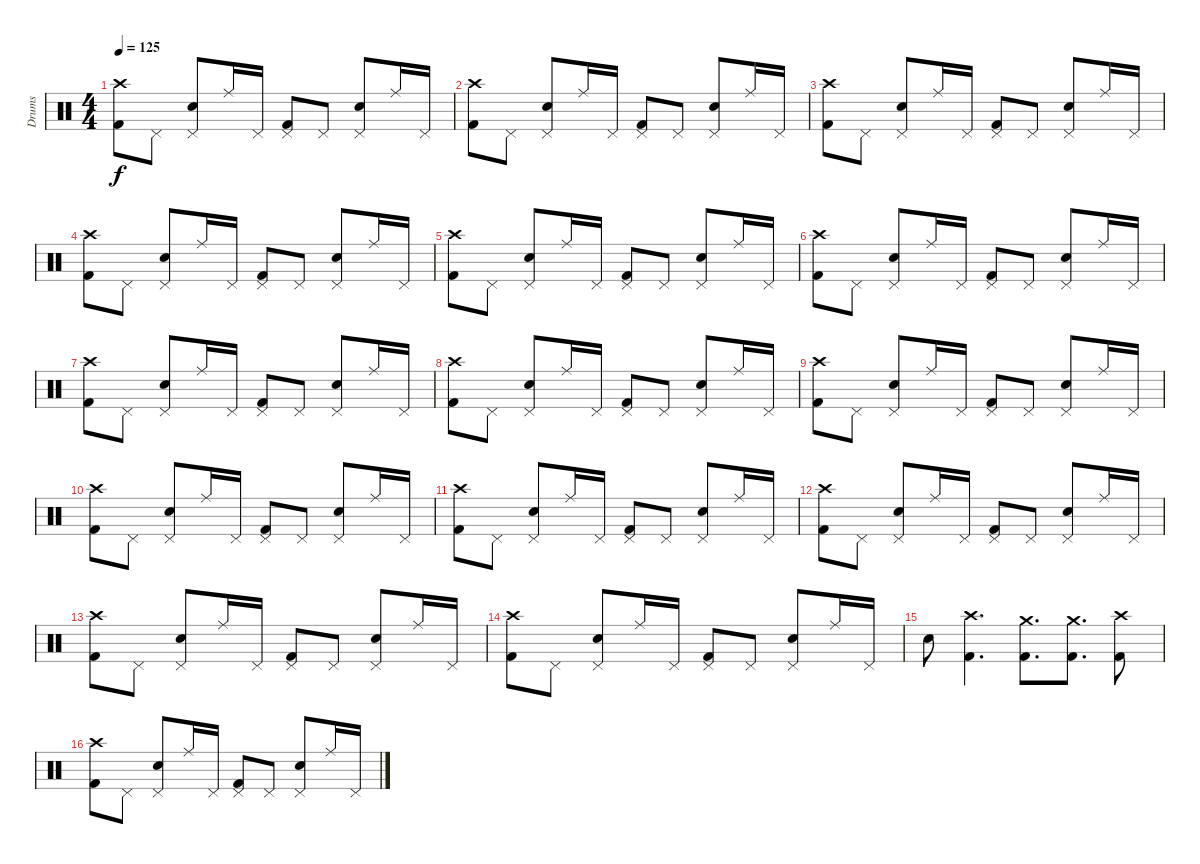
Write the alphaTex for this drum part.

\track ("Drums" "Drums") {instrument percussion}
\staff {score}
\articulation defaults
\ts (4 4)
\tempo 125
\clef neutral
\ks c
("Crash high (hit)" "Kick (hit) 2").8{dy f} "Pedal Hi-Hat (hit)".8 ("Pedal Hi-Hat (hit)" "Snare (hit) 2").8 "Ride (middle)".16 "Pedal Hi-Hat (hit)".16 ("Pedal Hi-Hat (hit)" "Kick (hit) 2").8 "Pedal Hi-Hat (hit)".8 ("Pedal Hi-Hat (hit)" "Snare (hit) 2").8 "Ride (middle)".16 "Pedal Hi-Hat (hit)".16 |
("Crash high (hit)" "Kick (hit) 2").8 "Pedal Hi-Hat (hit)".8 ("Pedal Hi-Hat (hit)" "Snare (hit) 2").8 "Ride (middle)".16 "Pedal Hi-Hat (hit)".16 ("Pedal Hi-Hat (hit)" "Kick (hit) 2").8 "Pedal Hi-Hat (hit)".8 ("Pedal Hi-Hat (hit)" "Snare (hit) 2").8 "Ride (middle)".16 "Pedal Hi-Hat (hit)".16 |
("Crash high (hit)" "Kick (hit) 2").8 "Pedal Hi-Hat (hit)".8 ("Pedal Hi-Hat (hit)" "Snare (hit) 2").8 "Ride (middle)".16 "Pedal Hi-Hat (hit)".16 ("Pedal Hi-Hat (hit)" "Kick (hit) 2").8 "Pedal Hi-Hat (hit)".8 ("Pedal Hi-Hat (hit)" "Snare (hit) 2").8 "Ride (middle)".16 "Pedal Hi-Hat (hit)".16 |
("Crash high (hit)" "Kick (hit) 2").8 "Pedal Hi-Hat (hit)".8 ("Pedal Hi-Hat (hit)" "Snare (hit) 2").8 "Ride (middle)".16 "Pedal Hi-Hat (hit)".16 ("Pedal Hi-Hat (hit)" "Kick (hit) 2").8 "Pedal Hi-Hat (hit)".8 ("Pedal Hi-Hat (hit)" "Snare (hit) 2").8 "Ride (middle)".16 "Pedal Hi-Hat (hit)".16 |
("Crash high (hit)" "Kick (hit) 2").8 "Pedal Hi-Hat (hit)".8 ("Pedal Hi-Hat (hit)" "Snare (hit) 2").8 "Ride (middle)".16 "Pedal Hi-Hat (hit)".16 ("Pedal Hi-Hat (hit)" "Kick (hit) 2").8 "Pedal Hi-Hat (hit)".8 ("Pedal Hi-Hat (hit)" "Snare (hit) 2").8 "Ride (middle)".16 "Pedal Hi-Hat (hit)".16 |
("Crash high (hit)" "Kick (hit) 2").8 "Pedal Hi-Hat (hit)".8 ("Pedal Hi-Hat (hit)" "Snare (hit) 2").8 "Ride (middle)".16 "Pedal Hi-Hat (hit)".16 ("Pedal Hi-Hat (hit)" "Kick (hit) 2").8 "Pedal Hi-Hat (hit)".8 ("Pedal Hi-Hat (hit)" "Snare (hit) 2").8 "Ride (middle)".16 "Pedal Hi-Hat (hit)".16 |
("Crash high (hit)" "Kick (hit) 2").8 "Pedal Hi-Hat (hit)".8 ("Pedal Hi-Hat (hit)" "Snare (hit) 2").8 "Ride (middle)".16 "Pedal Hi-Hat (hit)".16 ("Pedal Hi-Hat (hit)" "Kick (hit) 2").8 "Pedal Hi-Hat (hit)".8 ("Pedal Hi-Hat (hit)" "Snare (hit) 2").8 "Ride (middle)".16 "Pedal Hi-Hat (hit)".16 |
("Crash high (hit)" "Kick (hit) 2").8 "Pedal Hi-Hat (hit)".8 ("Pedal Hi-Hat (hit)" "Snare (hit) 2").8 "Ride (middle)".16 "Pedal Hi-Hat (hit)".16 ("Pedal Hi-Hat (hit)" "Kick (hit) 2").8 "Pedal Hi-Hat (hit)".8 ("Pedal Hi-Hat (hit)" "Snare (hit) 2").8 "Ride (middle)".16 "Pedal Hi-Hat (hit)".16 |
("Crash high (hit)" "Kick (hit) 2").8 "Pedal Hi-Hat (hit)".8 ("Pedal Hi-Hat (hit)" "Snare (hit) 2").8 "Ride (middle)".16 "Pedal Hi-Hat (hit)".16 ("Pedal Hi-Hat (hit)" "Kick (hit) 2").8 "Pedal Hi-Hat (hit)".8 ("Pedal Hi-Hat (hit)" "Snare (hit) 2").8 "Ride (middle)".16 "Pedal Hi-Hat (hit)".16 |
("Crash high (hit)" "Kick (hit) 2").8 "Pedal Hi-Hat (hit)".8 ("Pedal Hi-Hat (hit)" "Snare (hit) 2").8 "Ride (middle)".16 "Pedal Hi-Hat (hit)".16 ("Pedal Hi-Hat (hit)" "Kick (hit) 2").8 "Pedal Hi-Hat (hit)".8 ("Pedal Hi-Hat (hit)" "Snare (hit) 2").8 "Ride (middle)".16 "Pedal Hi-Hat (hit)".16 |
("Crash high (hit)" "Kick (hit) 2").8 "Pedal Hi-Hat (hit)".8 ("Pedal Hi-Hat (hit)" "Snare (hit) 2").8 "Ride (middle)".16 "Pedal Hi-Hat (hit)".16 ("Pedal Hi-Hat (hit)" "Kick (hit) 2").8 "Pedal Hi-Hat (hit)".8 ("Pedal Hi-Hat (hit)" "Snare (hit) 2").8 "Ride (middle)".16 "Pedal Hi-Hat (hit)".16 |
("Crash high (hit)" "Kick (hit) 2").8 "Pedal Hi-Hat (hit)".8 ("Pedal Hi-Hat (hit)" "Snare (hit) 2").8 "Ride (middle)".16 "Pedal Hi-Hat (hit)".16 ("Pedal Hi-Hat (hit)" "Kick (hit) 2").8 "Pedal Hi-Hat (hit)".8 ("Pedal Hi-Hat (hit)" "Snare (hit) 2").8 "Ride (middle)".16 "Pedal Hi-Hat (hit)".16 |
("Crash high (hit)" "Kick (hit) 2").8 "Pedal Hi-Hat (hit)".8 ("Pedal Hi-Hat (hit)" "Snare (hit) 2").8 "Ride (middle)".16 "Pedal Hi-Hat (hit)".16 ("Pedal Hi-Hat (hit)" "Kick (hit) 2").8 "Pedal Hi-Hat (hit)".8 ("Pedal Hi-Hat (hit)" "Snare (hit) 2").8 "Ride (middle)".16 "Pedal Hi-Hat (hit)".16 |
("Crash high (hit)" "Kick (hit) 2").8 "Pedal Hi-Hat (hit)".8 ("Pedal Hi-Hat (hit)" "Snare (hit) 2").8 "Ride (middle)".16 "Pedal Hi-Hat (hit)".16 ("Pedal Hi-Hat (hit)" "Kick (hit) 2").8 "Pedal Hi-Hat (hit)".8 ("Pedal Hi-Hat (hit)" "Snare (hit) 2").8 "Ride (middle)".16 "Pedal Hi-Hat (hit)".16 |
"Snare (hit) 2".8 ("Crash high (hit)" "Kick (hit) 2").4{d} ("Crash medium (hit)" "Kick (hit) 2").8{d} ("Crash medium (hit)" "Kick (hit) 2").8{d} ("Crash high (hit)" "Kick (hit) 2").8 |
("Crash high (hit)" "Kick (hit) 2").8 "Pedal Hi-Hat (hit)".8 ("Pedal Hi-Hat (hit)" "Snare (hit) 2").8 "Ride (middle)".16 "Pedal Hi-Hat (hit)".16 ("Pedal Hi-Hat (hit)" "Kick (hit) 2").8 "Pedal Hi-Hat (hit)".8 ("Pedal Hi-Hat (hit)" "Snare (hit) 2").8 "Ride (middle)".16 "Pedal Hi-Hat (hit)".16
